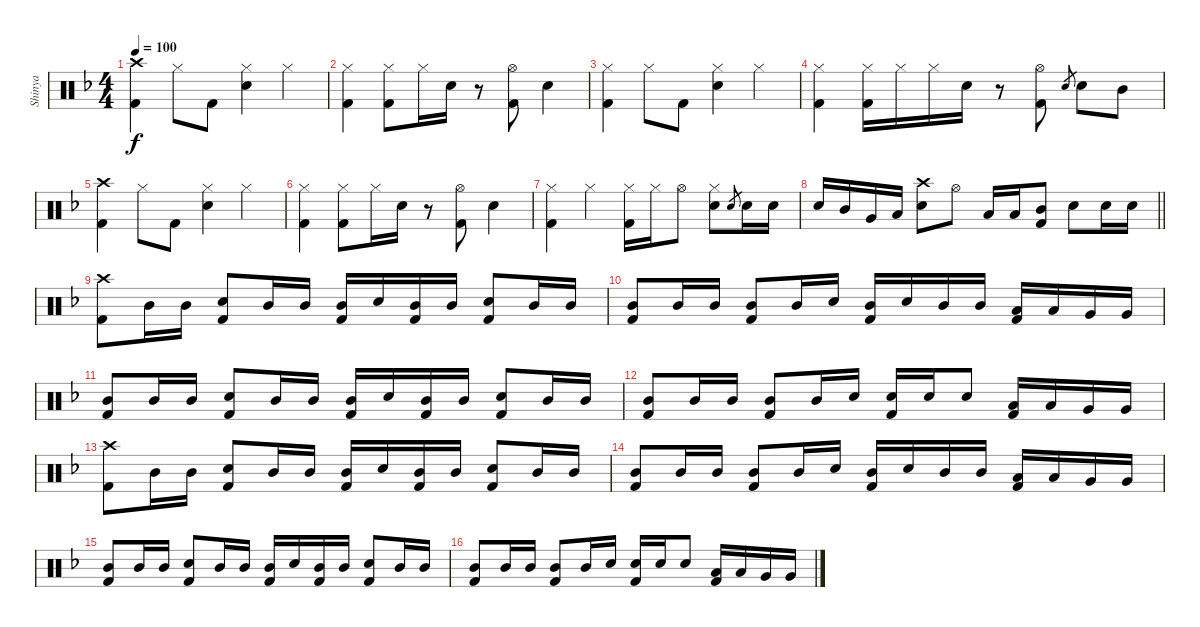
\track ("Shinya" "Shinya") {instrument percussion}
\staff {score}
\articulation defaults
\ts (4 4)
\tempo 100
\clef neutral
\ks f
("Crash high (hit)" "Kick (hit) 2").4{dy f} "Hi-Hat (closed)".8 "Kick (hit) 2".8 ("Hi-Hat (closed)" "Electric Snare (hit)").4 "Hi-Hat (closed)".4 |
("Hi-Hat (closed)" "Kick (hit) 2").4 ("Hi-Hat (closed)" "Kick (hit) 2").8 "Hi-Hat (closed)".16 "Electric Snare (hit)".16 r.8 ("Hi-Hat (open)" "Kick (hit) 2").8 "Electric Snare (hit)".4 |
("Hi-Hat (closed)" "Kick (hit) 2").4 "Hi-Hat (closed)".8 "Kick (hit) 2".8 ("Hi-Hat (closed)" "Electric Snare (hit)").4 "Hi-Hat (closed)".4 |
("Hi-Hat (closed)" "Kick (hit) 2").4 ("Hi-Hat (closed)" "Kick (hit) 2").16 "Hi-Hat (closed)".16 "Hi-Hat (closed)".16 "Electric Snare (hit)".16 r.8 ("Hi-Hat (open)" "Kick (hit) 2").8 "Electric Snare (hit)".8{gr} "Electric Snare (hit)".8 "Mid Tom (hit)".8 |
("Crash high (hit)" "Kick (hit) 2").4 "Hi-Hat (closed)".8 "Kick (hit) 2".8 ("Hi-Hat (closed)" "Electric Snare (hit)").4 "Hi-Hat (closed)".4 |
("Hi-Hat (closed)" "Kick (hit) 2").4 ("Hi-Hat (closed)" "Kick (hit) 2").8 "Hi-Hat (closed)".16 "Electric Snare (hit)".16 r.8 ("Hi-Hat (open)" "Kick (hit) 2").8 "Electric Snare (hit)".4 |
("Hi-Hat (closed)" "Kick (hit) 2").4 "Hi-Hat (closed)".4 ("Hi-Hat (closed)" "Kick (hit) 2").16 "Hi-Hat (closed)".16 "Hi-Hat (open)".8 ("Hi-Hat (closed)" "Electric Snare (hit)").8 "Electric Snare (hit)".8{gr} "Electric Snare (hit)".16 "Electric Snare (hit)".16 |
\barLineRight lightlight "Electric Snare (hit)".16 "Mid Tom (hit)".16 "Very Low Tom (hit)".16 "Low Tom (hit)".16
("Crash high (hit)" "Electric Snare (hit)").8 "Hi-Hat (open)".8 "Low Tom (hit)".16 "Low Tom (hit)".16 ("Mid Tom (hit)" "Kick (hit) 2").8 "Electric Snare (hit)".8 "Electric Snare (hit)".16 "Electric Snare (hit)".16 |
("Crash high (hit)" "Kick (hit) 2").8 "Mid Tom (hit)".16 "Mid Tom (hit)".16 ("Electric Snare (hit)" "Kick (hit) 2").8 "Mid Tom (hit)".16 "Mid Tom (hit)".16 ("Mid Tom (hit)" "Kick (hit) 2").16 "Electric Snare (hit)".16 ("Mid Tom (hit)" "Kick (hit) 2").16 "Mid Tom (hit)".16 ("Electric Snare (hit)" "Kick (hit) 2").8 "Mid Tom (hit)".16 "Mid Tom (hit)".16 |
("Mid Tom (hit)" "Kick (hit) 2").8 "Mid Tom (hit)".16 "Mid Tom (hit)".16 ("Mid Tom (hit)" "Kick (hit) 2").8 "Mid Tom (hit)".16 "Electric Snare (hit)".16 ("Mid Tom (hit)" "Kick (hit) 2").16 "Electric Snare (hit)".16 "Mid Tom (hit)".16 "Mid Tom (hit)".16 ("Low Tom (hit)" "Kick (hit) 2").16 "Low Tom (hit)".16 "Very Low Tom (hit)".16 "Very Low Tom (hit)".16 |
("Mid Tom (hit)" "Kick (hit) 2").8 "Mid Tom (hit)".16 "Mid Tom (hit)".16 ("Electric Snare (hit)" "Kick (hit) 2").8 "Mid Tom (hit)".16 "Mid Tom (hit)".16 ("Mid Tom (hit)" "Kick (hit) 2").16 "Electric Snare (hit)".16 ("Mid Tom (hit)" "Kick (hit) 2").16 "Mid Tom (hit)".16 ("Electric Snare (hit)" "Kick (hit) 2").8 "Mid Tom (hit)".16 "Mid Tom (hit)".16 |
("Mid Tom (hit)" "Kick (hit) 2").8 "Mid Tom (hit)".16 "Mid Tom (hit)".16 ("Mid Tom (hit)" "Kick (hit) 2").8 "Mid Tom (hit)".16 "Electric Snare (hit)".16 ("Electric Snare (hit)" "Kick (hit) 2").16 "Electric Snare (hit)".16 "Electric Snare (hit)".8 ("Low Tom (hit)" "Kick (hit) 2").16 "Low Tom (hit)".16 "Very Low Tom (hit)".16 "Very Low Tom (hit)".16 |
("Crash high (hit)" "Kick (hit) 2").8 "Mid Tom (hit)".16 "Mid Tom (hit)".16 ("Electric Snare (hit)" "Kick (hit) 2").8 "Mid Tom (hit)".16 "Mid Tom (hit)".16 ("Mid Tom (hit)" "Kick (hit) 2").16 "Electric Snare (hit)".16 ("Mid Tom (hit)" "Kick (hit) 2").16 "Mid Tom (hit)".16 ("Electric Snare (hit)" "Kick (hit) 2").8 "Mid Tom (hit)".16 "Mid Tom (hit)".16 |
("Mid Tom (hit)" "Kick (hit) 2").8 "Mid Tom (hit)".16 "Mid Tom (hit)".16 ("Mid Tom (hit)" "Kick (hit) 2").8 "Mid Tom (hit)".16 "Electric Snare (hit)".16 ("Mid Tom (hit)" "Kick (hit) 2").16 "Electric Snare (hit)".16 "Mid Tom (hit)".16 "Mid Tom (hit)".16 ("Low Tom (hit)" "Kick (hit) 2").16 "Low Tom (hit)".16 "Very Low Tom (hit)".16 "Very Low Tom (hit)".16 |
("Mid Tom (hit)" "Kick (hit) 2").8 "Mid Tom (hit)".16 "Mid Tom (hit)".16 ("Electric Snare (hit)" "Kick (hit) 2").8 "Mid Tom (hit)".16 "Mid Tom (hit)".16 ("Mid Tom (hit)" "Kick (hit) 2").16 "Electric Snare (hit)".16 ("Mid Tom (hit)" "Kick (hit) 2").16 "Mid Tom (hit)".16 ("Electric Snare (hit)" "Kick (hit) 2").8 "Mid Tom (hit)".16 "Mid Tom (hit)".16 |
("Mid Tom (hit)" "Kick (hit) 2").8 "Mid Tom (hit)".16 "Mid Tom (hit)".16 ("Mid Tom (hit)" "Kick (hit) 2").8 "Mid Tom (hit)".16 "Electric Snare (hit)".16 ("Electric Snare (hit)" "Kick (hit) 2").16 "Electric Snare (hit)".16 "Electric Snare (hit)".8 ("Low Tom (hit)" "Kick (hit) 2").16 "Low Tom (hit)".16 "Very Low Tom (hit)".16 "Very Low Tom (hit)".16
